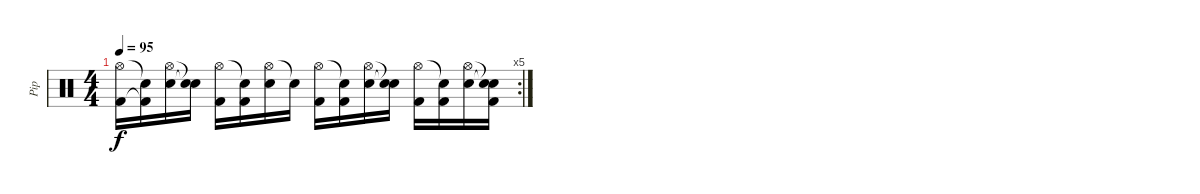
\track ("Pip" "Pip") {instrument percussion}
\staff {score}
\articulation defaults
\rc 5
\ts (4 4)
\tempo 95
\clef neutral
\ks c
("Hi-Hat (open)" "Kick (hit) 2").16{dy f} ("Snare (hit)"{t} "Kick (hit) 2"{t}).16 ("Hi-Hat (open)" "Electric Snare (hit)").16 ("Snare (hit)"{t} "Snare (hit)"{t}).16 ("Hi-Hat (open)" "Kick (hit) 2").16 ("Snare (hit)"{t} "Kick (hit) 2").16 ("Hi-Hat (open)" "Electric Snare (hit)").16 "Snare (hit)"{t}.16 ("Hi-Hat (open)" "Kick (hit) 2").16 ("Snare (hit)"{t} "Kick (hit) 2").16 ("Hi-Hat (open)" "Electric Snare (hit)").16 ("Snare (hit)"{t} "Snare (hit)"{t}).16 ("Hi-Hat (open)" "Kick (hit) 2").16 ("Snare (hit)"{t} "Kick (hit) 2").16 ("Hi-Hat (open)" "Electric Snare (hit)").16 ("Snare (hit)"{t} "Snare (hit)"{t} "Kick (hit) 2").16
